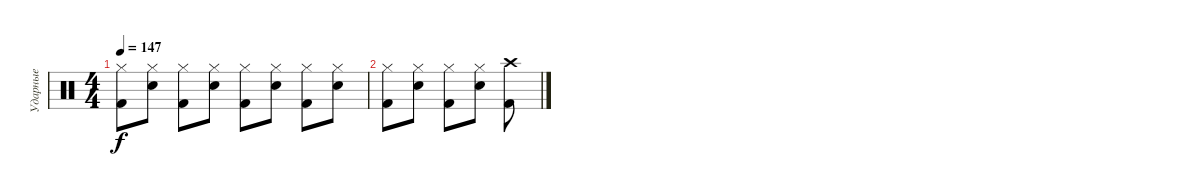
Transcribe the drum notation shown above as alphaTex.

\track ("Ударные" "Ударные") {instrument percussion}
\staff {score}
\articulation defaults
\ts (4 4)
\tempo 147
\clef neutral
\ks c
("Kick (hit) 2" "Hi-Hat (closed)").8{dy f} ("Electric Snare (hit)" "Hi-Hat (closed)").8 ("Kick (hit) 2" "Hi-Hat (closed)").8 ("Electric Snare (hit)" "Hi-Hat (closed)").8 ("Kick (hit) 2" "Hi-Hat (closed)").8 ("Electric Snare (hit)" "Hi-Hat (closed)").8 ("Kick (hit) 2" "Hi-Hat (closed)").8 ("Electric Snare (hit)" "Hi-Hat (closed)").8 |
("Kick (hit) 2" "Hi-Hat (closed)").8 ("Electric Snare (hit)" "Hi-Hat (closed)").8 ("Kick (hit) 2" "Hi-Hat (closed)").8 ("Electric Snare (hit)" "Hi-Hat (closed)").8 ("Kick (hit) 2" "Crash high (hit)").8
